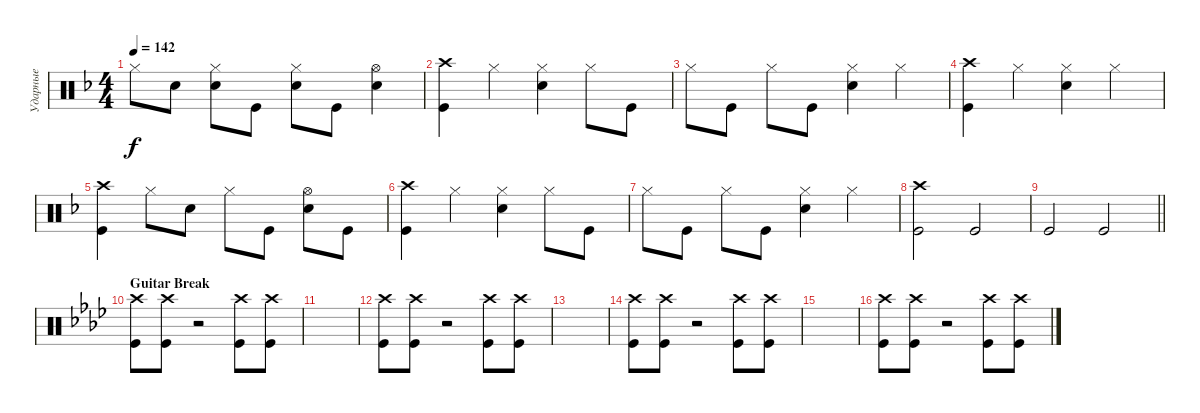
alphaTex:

\track ("Ударные" "Ударные") {instrument percussion}
\staff {score}
\articulation defaults
\ts (4 4)
\tempo 142
\clef neutral
\ks dminor "Hi-Hat (closed)".8{dy f} "Snare (hit) 2".8
("Snare (hit) 2" "Hi-Hat (closed)").8 "Kick (hit)".8 ("Snare (hit) 2" "Hi-Hat (closed)").8 "Kick (hit)".8 ("Snare (hit) 2" "Hi-Hat (open)").4 |
("Kick (hit)" "Crash high (hit)").4 "Hi-Hat (closed)".4 ("Hi-Hat (closed)" "Snare (hit) 2").4 "Hi-Hat (closed)".8 "Kick (hit)".8 |
"Hi-Hat (closed)".8 "Kick (hit)".8 "Hi-Hat (closed)".8 "Kick (hit)".8 ("Snare (hit) 2" "Hi-Hat (closed)").4 "Hi-Hat (closed)".4 |
("Kick (hit)" "Crash high (hit)").4 "Hi-Hat (closed)".4 ("Hi-Hat (closed)" "Snare (hit) 2").4 "Hi-Hat (closed)".4 |
("Kick (hit)" "Crash high (hit)").4 "Hi-Hat (closed)".8 "Snare (hit) 2".8 "Hi-Hat (closed)".8 "Kick (hit)".8 ("Snare (hit) 2" "Hi-Hat (open)").8 "Kick (hit)".8 |
("Kick (hit)" "Crash high (hit)").4 "Hi-Hat (closed)".4 ("Hi-Hat (closed)" "Snare (hit) 2").4 "Hi-Hat (closed)".8 "Kick (hit)".8 |
"Hi-Hat (closed)".8 "Kick (hit)".8 "Hi-Hat (closed)".8 "Kick (hit)".8 ("Snare (hit) 2" "Hi-Hat (closed)").4 "Hi-Hat (closed)".4 |
("Kick (hit)" "Crash high (hit)").2 "Kick (hit)".2 |
\barLineRight lightlight "Kick (hit)".2 "Kick (hit)".2
|
\section ("" "Guitar Break")
\ks fminor
("Kick (hit)" "Crash high (hit)").8 ("Kick (hit)" "Crash high (hit)").8 r.2 ("Kick (hit)" "Crash high (hit)").8 ("Kick (hit)" "Crash high (hit)").8 |
|
("Kick (hit)" "Crash high (hit)").8 ("Kick (hit)" "Crash high (hit)").8 r.2 ("Kick (hit)" "Crash high (hit)").8 ("Kick (hit)" "Crash high (hit)").8 |
|
("Kick (hit)" "Crash high (hit)").8 ("Kick (hit)" "Crash high (hit)").8 r.2 ("Kick (hit)" "Crash high (hit)").8 ("Kick (hit)" "Crash high (hit)").8 |
|
("Kick (hit)" "Crash high (hit)").8 ("Kick (hit)" "Crash high (hit)").8 r.2 ("Kick (hit)" "Crash high (hit)").8 ("Kick (hit)" "Crash high (hit)").8
